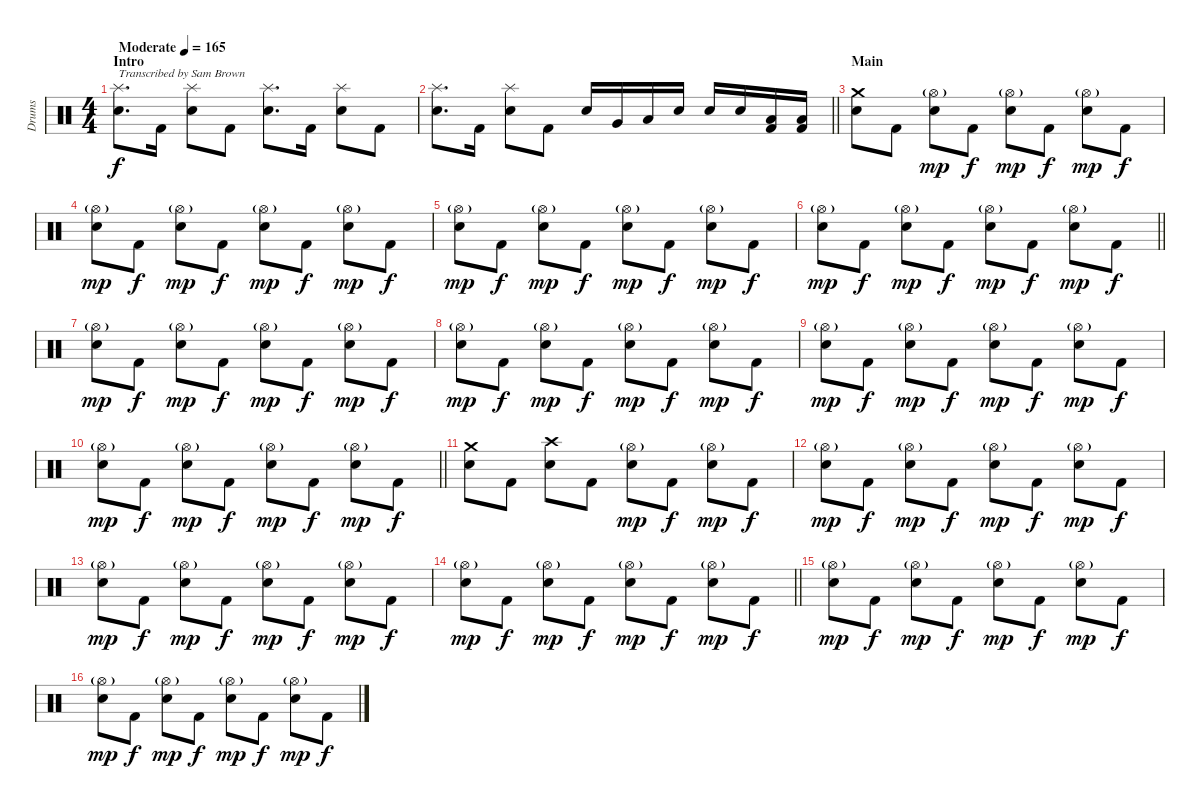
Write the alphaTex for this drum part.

\track ("Drums" "Drums") {instrument percussion}
\staff {score}
\articulation defaults
\ts (4 4)
\section ("" "Intro")
\tempo (165 "Moderate")
\clef neutral
\ks c
("Snare (hit) 2" "Splash (hit)").8{d txt "Transcribed by Sam Brown" dy f} "Kick (hit) 2".16 ("Snare (hit) 2" "Splash (hit)").8 "Kick (hit) 2".8 ("Snare (hit) 2" "Splash (hit)").8{d} "Kick (hit) 2".16 ("Snare (hit) 2" "Splash (hit)").8 "Kick (hit) 2".8 |
\barLineRight lightlight
("Snare (hit) 2" "Splash (hit)").8{d} "Kick (hit) 2".16 ("Snare (hit) 2" "Splash (hit)").8 "Kick (hit) 2".8 "Snare (hit) 2".16 "Very Low Tom (hit)".16 "Low Floor Tom (hit)".16 "Snare (hit) 2".16 "Snare (hit) 2".16 "Snare (hit) 2".16 ("Kick (hit) 2" "Low Floor Tom (hit)").16 ("Kick (hit) 2" "Low Floor Tom (hit)").16 |
\section ("" "Main")
("Snare (hit) 2" "Crash medium (hit)").8 "Kick (hit) 2".8 ("Snare (hit) 2" "Hi-Hat (open)"{g}).8{dy mp} "Kick (hit) 2".8{dy f} ("Snare (hit) 2" "Hi-Hat (open)"{g}).8{dy mp} "Kick (hit) 2".8{dy f} ("Snare (hit) 2" "Hi-Hat (open)"{g}).8{dy mp} "Kick (hit) 2".8{dy f} |
("Snare (hit) 2" "Hi-Hat (open)"{g}).8{dy mp} "Kick (hit) 2".8{dy f} ("Snare (hit) 2" "Hi-Hat (open)"{g}).8{dy mp} "Kick (hit) 2".8{dy f} ("Snare (hit) 2" "Hi-Hat (open)"{g}).8{dy mp} "Kick (hit) 2".8{dy f} ("Snare (hit) 2" "Hi-Hat (open)"{g}).8{dy mp} "Kick (hit) 2".8{dy f} |
("Snare (hit) 2" "Hi-Hat (open)"{g}).8{dy mp} "Kick (hit) 2".8{dy f} ("Snare (hit) 2" "Hi-Hat (open)"{g}).8{dy mp} "Kick (hit) 2".8{dy f} ("Snare (hit) 2" "Hi-Hat (open)"{g}).8{dy mp} "Kick (hit) 2".8{dy f} ("Snare (hit) 2" "Hi-Hat (open)"{g}).8{dy mp} "Kick (hit) 2".8{dy f} |
\barLineRight lightlight
("Snare (hit) 2" "Hi-Hat (open)"{g}).8{dy mp} "Kick (hit) 2".8{dy f} ("Snare (hit) 2" "Hi-Hat (open)"{g}).8{dy mp} "Kick (hit) 2".8{dy f} ("Snare (hit) 2" "Hi-Hat (open)"{g}).8{dy mp} "Kick (hit) 2".8{dy f} ("Snare (hit) 2" "Hi-Hat (open)"{g}).8{dy mp} "Kick (hit) 2".8{dy f} |
\section ("" "")
("Snare (hit) 2" "Hi-Hat (open)"{g}).8{dy mp} "Kick (hit) 2".8{dy f} ("Snare (hit) 2" "Hi-Hat (open)"{g}).8{dy mp} "Kick (hit) 2".8{dy f} ("Snare (hit) 2" "Hi-Hat (open)"{g}).8{dy mp} "Kick (hit) 2".8{dy f} ("Snare (hit) 2" "Hi-Hat (open)"{g}).8{dy mp} "Kick (hit) 2".8{dy f} |
("Snare (hit) 2" "Hi-Hat (open)"{g}).8{dy mp} "Kick (hit) 2".8{dy f} ("Snare (hit) 2" "Hi-Hat (open)"{g}).8{dy mp} "Kick (hit) 2".8{dy f} ("Snare (hit) 2" "Hi-Hat (open)"{g}).8{dy mp} "Kick (hit) 2".8{dy f} ("Snare (hit) 2" "Hi-Hat (open)"{g}).8{dy mp} "Kick (hit) 2".8{dy f} |
("Snare (hit) 2" "Hi-Hat (open)"{g}).8{dy mp} "Kick (hit) 2".8{dy f} ("Snare (hit) 2" "Hi-Hat (open)"{g}).8{dy mp} "Kick (hit) 2".8{dy f} ("Snare (hit) 2" "Hi-Hat (open)"{g}).8{dy mp} "Kick (hit) 2".8{dy f} ("Snare (hit) 2" "Hi-Hat (open)"{g}).8{dy mp} "Kick (hit) 2".8{dy f} |
\barLineRight lightlight
("Snare (hit) 2" "Hi-Hat (open)"{g}).8{dy mp} "Kick (hit) 2".8{dy f} ("Snare (hit) 2" "Hi-Hat (open)"{g}).8{dy mp} "Kick (hit) 2".8{dy f} ("Snare (hit) 2" "Hi-Hat (open)"{g}).8{dy mp} "Kick (hit) 2".8{dy f} ("Snare (hit) 2" "Hi-Hat (open)"{g}).8{dy mp} "Kick (hit) 2".8{dy f} |
\section ("" "")
("Snare (hit) 2" "Crash medium (hit)").8 "Kick (hit) 2".8 ("Snare (hit) 2" "Crash high (hit)").8 "Kick (hit) 2".8 ("Snare (hit) 2" "Hi-Hat (open)"{g}).8{dy mp} "Kick (hit) 2".8{dy f} ("Snare (hit) 2" "Hi-Hat (open)"{g}).8{dy mp} "Kick (hit) 2".8{dy f} |
("Snare (hit) 2" "Hi-Hat (open)"{g}).8{dy mp} "Kick (hit) 2".8{dy f} ("Snare (hit) 2" "Hi-Hat (open)"{g}).8{dy mp} "Kick (hit) 2".8{dy f} ("Snare (hit) 2" "Hi-Hat (open)"{g}).8{dy mp} "Kick (hit) 2".8{dy f} ("Snare (hit) 2" "Hi-Hat (open)"{g}).8{dy mp} "Kick (hit) 2".8{dy f} |
("Snare (hit) 2" "Hi-Hat (open)"{g}).8{dy mp} "Kick (hit) 2".8{dy f} ("Snare (hit) 2" "Hi-Hat (open)"{g}).8{dy mp} "Kick (hit) 2".8{dy f} ("Snare (hit) 2" "Hi-Hat (open)"{g}).8{dy mp} "Kick (hit) 2".8{dy f} ("Snare (hit) 2" "Hi-Hat (open)"{g}).8{dy mp} "Kick (hit) 2".8{dy f} |
\barLineRight lightlight
("Snare (hit) 2" "Hi-Hat (open)"{g}).8{dy mp} "Kick (hit) 2".8{dy f} ("Snare (hit) 2" "Hi-Hat (open)"{g}).8{dy mp} "Kick (hit) 2".8{dy f} ("Snare (hit) 2" "Hi-Hat (open)"{g}).8{dy mp} "Kick (hit) 2".8{dy f} ("Snare (hit) 2" "Hi-Hat (open)"{g}).8{dy mp} "Kick (hit) 2".8{dy f} |
\section ("" "")
("Snare (hit) 2" "Hi-Hat (open)"{g}).8{dy mp} "Kick (hit) 2".8{dy f} ("Snare (hit) 2" "Hi-Hat (open)"{g}).8{dy mp} "Kick (hit) 2".8{dy f} ("Snare (hit) 2" "Hi-Hat (open)"{g}).8{dy mp} "Kick (hit) 2".8{dy f} ("Snare (hit) 2" "Hi-Hat (open)"{g}).8{dy mp} "Kick (hit) 2".8{dy f} |
("Snare (hit) 2" "Hi-Hat (open)"{g}).8{dy mp} "Kick (hit) 2".8{dy f} ("Snare (hit) 2" "Hi-Hat (open)"{g}).8{dy mp} "Kick (hit) 2".8{dy f} ("Snare (hit) 2" "Hi-Hat (open)"{g}).8{dy mp} "Kick (hit) 2".8{dy f} ("Snare (hit) 2" "Hi-Hat (open)"{g}).8{dy mp} "Kick (hit) 2".8{dy f}
